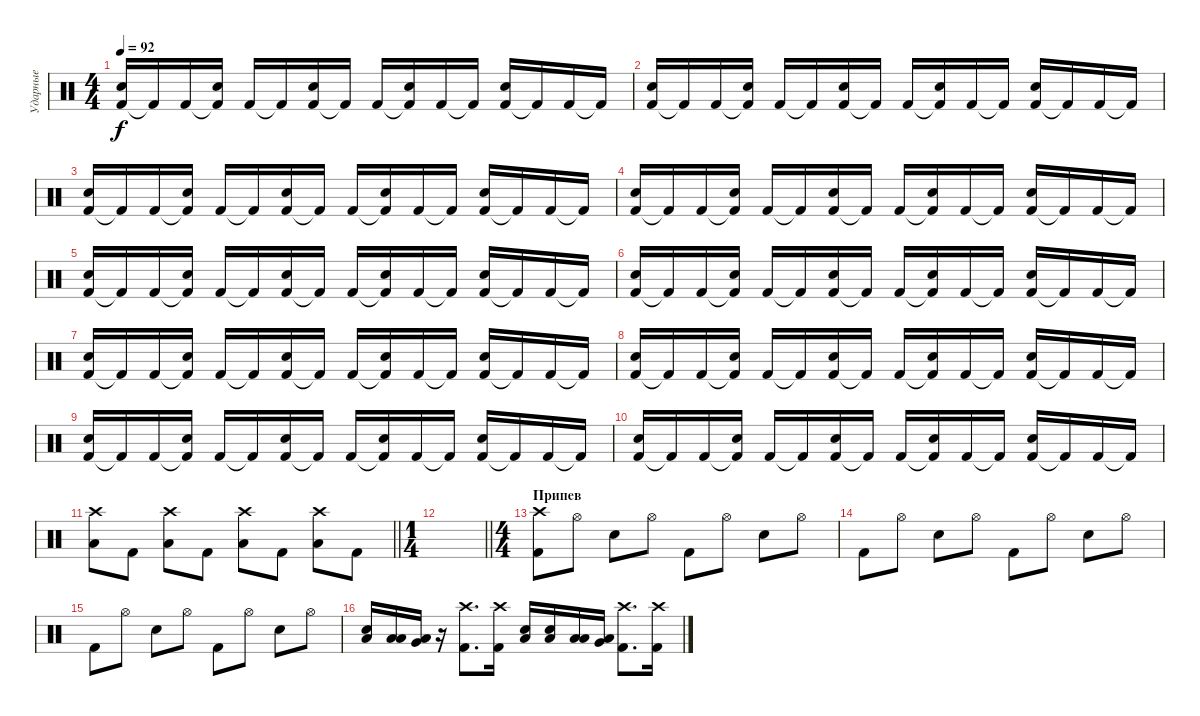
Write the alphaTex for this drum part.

\track ("Ударные" "Ударные") {instrument percussion}
\staff {score}
\articulation defaults
\ts (4 4)
\tempo 92
\clef neutral
\ks c
("Kick (hit) 2" "Snare (hit) 2").16{dy f} "Kick (hit) 2"{t}.16 "Kick (hit) 2".16 ("Kick (hit) 2"{t} "Snare (hit) 2").16 "Kick (hit) 2".16 "Kick (hit) 2"{t}.16 ("Kick (hit) 2" "Snare (hit) 2").16 "Kick (hit) 2"{t}.16 "Kick (hit) 2".16 ("Kick (hit) 2"{t} "Snare (hit) 2").16 "Kick (hit) 2".16 "Kick (hit) 2"{t}.16 ("Kick (hit) 2" "Snare (hit) 2").16 "Kick (hit) 2"{t}.16 "Kick (hit) 2".16 "Kick (hit) 2"{t}.16 |
("Kick (hit) 2" "Snare (hit) 2").16 "Kick (hit) 2"{t}.16 "Kick (hit) 2".16 ("Kick (hit) 2"{t} "Snare (hit) 2").16 "Kick (hit) 2".16 "Kick (hit) 2"{t}.16 ("Kick (hit) 2" "Snare (hit) 2").16 "Kick (hit) 2"{t}.16 "Kick (hit) 2".16 ("Kick (hit) 2"{t} "Snare (hit) 2").16 "Kick (hit) 2".16 "Kick (hit) 2"{t}.16 ("Kick (hit) 2" "Snare (hit) 2").16 "Kick (hit) 2"{t}.16 "Kick (hit) 2".16 "Kick (hit) 2"{t}.16 |
("Kick (hit) 2" "Snare (hit) 2").16 "Kick (hit) 2"{t}.16 "Kick (hit) 2".16 ("Kick (hit) 2"{t} "Snare (hit) 2").16 "Kick (hit) 2".16 "Kick (hit) 2"{t}.16 ("Kick (hit) 2" "Snare (hit) 2").16 "Kick (hit) 2"{t}.16 "Kick (hit) 2".16 ("Kick (hit) 2"{t} "Snare (hit) 2").16 "Kick (hit) 2".16 "Kick (hit) 2"{t}.16 ("Kick (hit) 2" "Snare (hit) 2").16 "Kick (hit) 2"{t}.16 "Kick (hit) 2".16 "Kick (hit) 2"{t}.16 |
("Kick (hit) 2" "Snare (hit) 2").16 "Kick (hit) 2"{t}.16 "Kick (hit) 2".16 ("Kick (hit) 2"{t} "Snare (hit) 2").16 "Kick (hit) 2".16 "Kick (hit) 2"{t}.16 ("Kick (hit) 2" "Snare (hit) 2").16 "Kick (hit) 2"{t}.16 "Kick (hit) 2".16 ("Kick (hit) 2"{t} "Snare (hit) 2").16 "Kick (hit) 2".16 "Kick (hit) 2"{t}.16 ("Kick (hit) 2" "Snare (hit) 2").16 "Kick (hit) 2"{t}.16 "Kick (hit) 2".16 "Kick (hit) 2"{t}.16 |
("Kick (hit) 2" "Snare (hit) 2").16 "Kick (hit) 2"{t}.16 "Kick (hit) 2".16 ("Kick (hit) 2"{t} "Snare (hit) 2").16 "Kick (hit) 2".16 "Kick (hit) 2"{t}.16 ("Kick (hit) 2" "Snare (hit) 2").16 "Kick (hit) 2"{t}.16 "Kick (hit) 2".16 ("Kick (hit) 2"{t} "Snare (hit) 2").16 "Kick (hit) 2".16 "Kick (hit) 2"{t}.16 ("Kick (hit) 2" "Snare (hit) 2").16 "Kick (hit) 2"{t}.16 "Kick (hit) 2".16 "Kick (hit) 2"{t}.16 |
("Kick (hit) 2" "Snare (hit) 2").16 "Kick (hit) 2"{t}.16 "Kick (hit) 2".16 ("Kick (hit) 2"{t} "Snare (hit) 2").16 "Kick (hit) 2".16 "Kick (hit) 2"{t}.16 ("Kick (hit) 2" "Snare (hit) 2").16 "Kick (hit) 2"{t}.16 "Kick (hit) 2".16 ("Kick (hit) 2"{t} "Snare (hit) 2").16 "Kick (hit) 2".16 "Kick (hit) 2"{t}.16 ("Kick (hit) 2" "Snare (hit) 2").16 "Kick (hit) 2"{t}.16 "Kick (hit) 2".16 "Kick (hit) 2"{t}.16 |
("Kick (hit) 2" "Snare (hit) 2").16 "Kick (hit) 2"{t}.16 "Kick (hit) 2".16 ("Kick (hit) 2"{t} "Snare (hit) 2").16 "Kick (hit) 2".16 "Kick (hit) 2"{t}.16 ("Kick (hit) 2" "Snare (hit) 2").16 "Kick (hit) 2"{t}.16 "Kick (hit) 2".16 ("Kick (hit) 2"{t} "Snare (hit) 2").16 "Kick (hit) 2".16 "Kick (hit) 2"{t}.16 ("Kick (hit) 2" "Snare (hit) 2").16 "Kick (hit) 2"{t}.16 "Kick (hit) 2".16 "Kick (hit) 2"{t}.16 |
("Kick (hit) 2" "Snare (hit) 2").16 "Kick (hit) 2"{t}.16 "Kick (hit) 2".16 ("Kick (hit) 2"{t} "Snare (hit) 2").16 "Kick (hit) 2".16 "Kick (hit) 2"{t}.16 ("Kick (hit) 2" "Snare (hit) 2").16 "Kick (hit) 2"{t}.16 "Kick (hit) 2".16 ("Kick (hit) 2"{t} "Snare (hit) 2").16 "Kick (hit) 2".16 "Kick (hit) 2"{t}.16 ("Kick (hit) 2" "Snare (hit) 2").16 "Kick (hit) 2"{t}.16 "Kick (hit) 2".16 "Kick (hit) 2"{t}.16 |
("Kick (hit) 2" "Snare (hit) 2").16 "Kick (hit) 2"{t}.16 "Kick (hit) 2".16 ("Kick (hit) 2"{t} "Snare (hit) 2").16 "Kick (hit) 2".16 "Kick (hit) 2"{t}.16 ("Kick (hit) 2" "Snare (hit) 2").16 "Kick (hit) 2"{t}.16 "Kick (hit) 2".16 ("Kick (hit) 2"{t} "Snare (hit) 2").16 "Kick (hit) 2".16 "Kick (hit) 2"{t}.16 ("Kick (hit) 2" "Snare (hit) 2").16 "Kick (hit) 2"{t}.16 "Kick (hit) 2".16 "Kick (hit) 2"{t}.16 |
("Kick (hit) 2" "Snare (hit) 2").16 "Kick (hit) 2"{t}.16 "Kick (hit) 2".16 ("Kick (hit) 2"{t} "Snare (hit) 2").16 "Kick (hit) 2".16 "Kick (hit) 2"{t}.16 ("Kick (hit) 2" "Snare (hit) 2").16 "Kick (hit) 2"{t}.16 "Kick (hit) 2".16 ("Kick (hit) 2"{t} "Snare (hit) 2").16 "Kick (hit) 2".16 "Kick (hit) 2"{t}.16 ("Kick (hit) 2" "Snare (hit) 2").16 "Kick (hit) 2"{t}.16 "Kick (hit) 2".16 "Kick (hit) 2"{t}.16 |
\barLineRight lightlight
("Low Floor Tom (hit)" "Crash high (hit)").8 "Kick (hit) 2".8 ("Low Floor Tom (hit)" "Crash high (hit)").8 "Kick (hit) 2".8 ("Low Floor Tom (hit)" "Crash high (hit)").8 "Kick (hit) 2".8 ("Low Floor Tom (hit)" "Crash high (hit)").8 "Kick (hit) 2".8 |
\ts (1 4)
\barLineRight lightlight
|
\ts (4 4)
\section ("" "Припев")
("Kick (hit) 2" "Crash high (hit)").8 "Hi-Hat (open)".8 "Snare (hit) 2".8 "Hi-Hat (open)".8 "Kick (hit) 2".8 "Hi-Hat (open)".8 "Snare (hit) 2".8 "Hi-Hat (open)".8 |
"Kick (hit) 2".8 "Hi-Hat (open)".8 "Snare (hit) 2".8 "Hi-Hat (open)".8 "Kick (hit) 2".8 "Hi-Hat (open)".8 "Snare (hit) 2".8 "Hi-Hat (open)".8 |
"Kick (hit) 2".8 "Hi-Hat (open)".8 "Snare (hit) 2".8 "Hi-Hat (open)".8 "Kick (hit) 2".8 "Hi-Hat (open)".8 "Snare (hit) 2".8 "Hi-Hat (open)".8 |
("Snare (hit) 2" "Low Floor Tom (hit)").16 ("Low Tom (hit)" "Low Floor Tom (hit)").16 ("Very Low Tom (hit)" "Low Floor Tom (hit)").16 r.16 ("Kick (hit) 2" "Crash high (hit)").8{d} ("Kick (hit) 2" "Crash high (hit)").16 ("Snare (hit) 2" "Low Floor Tom (hit)").16 ("Snare (hit) 2" "Low Floor Tom (hit)").16 ("Low Tom (hit)" "Low Floor Tom (hit)").16 ("Very Low Tom (hit)" "Low Floor Tom (hit)").16 ("Kick (hit) 2" "Crash high (hit)").8{d} ("Kick (hit) 2" "Crash high (hit)").16
